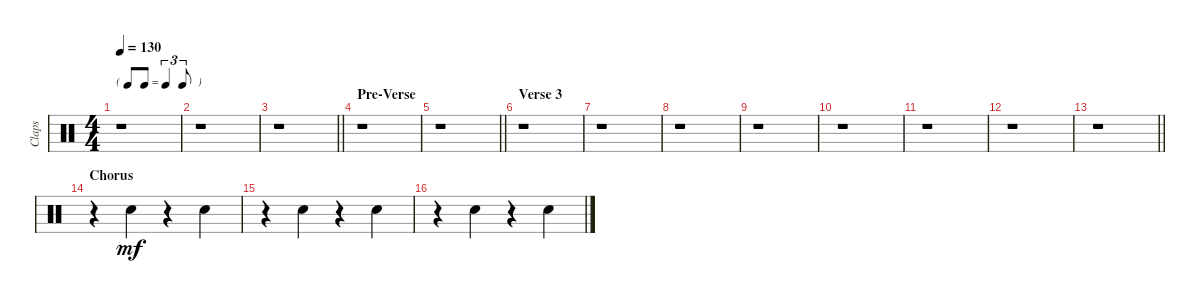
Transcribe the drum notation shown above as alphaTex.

\track ("Claps" "Claps") {instrument percussion}
\staff {score}
\articulation defaults
\ts (4 4)
\tf triplet8th
\tempo 130
\clef neutral
\ks c
r.1{dy mf} |
r.1 |
\barLineRight lightlight
r.1 |
\section ("" "Pre-Verse")
r.1 |
\barLineRight lightlight
r.1 |
\section ("" "Verse 3")
r.1 |
r.1 |
r.1 |
r.1 |
r.1 |
r.1 |
r.1 |
\barLineRight lightlight
r.1 |
\section ("" "Chorus")
r.4 "Hand Clap (hit)".4 r.4 "Hand Clap (hit)".4 |
r.4 "Hand Clap (hit)".4 r.4 "Hand Clap (hit)".4 |
r.4 "Hand Clap (hit)".4 r.4 "Hand Clap (hit)".4
